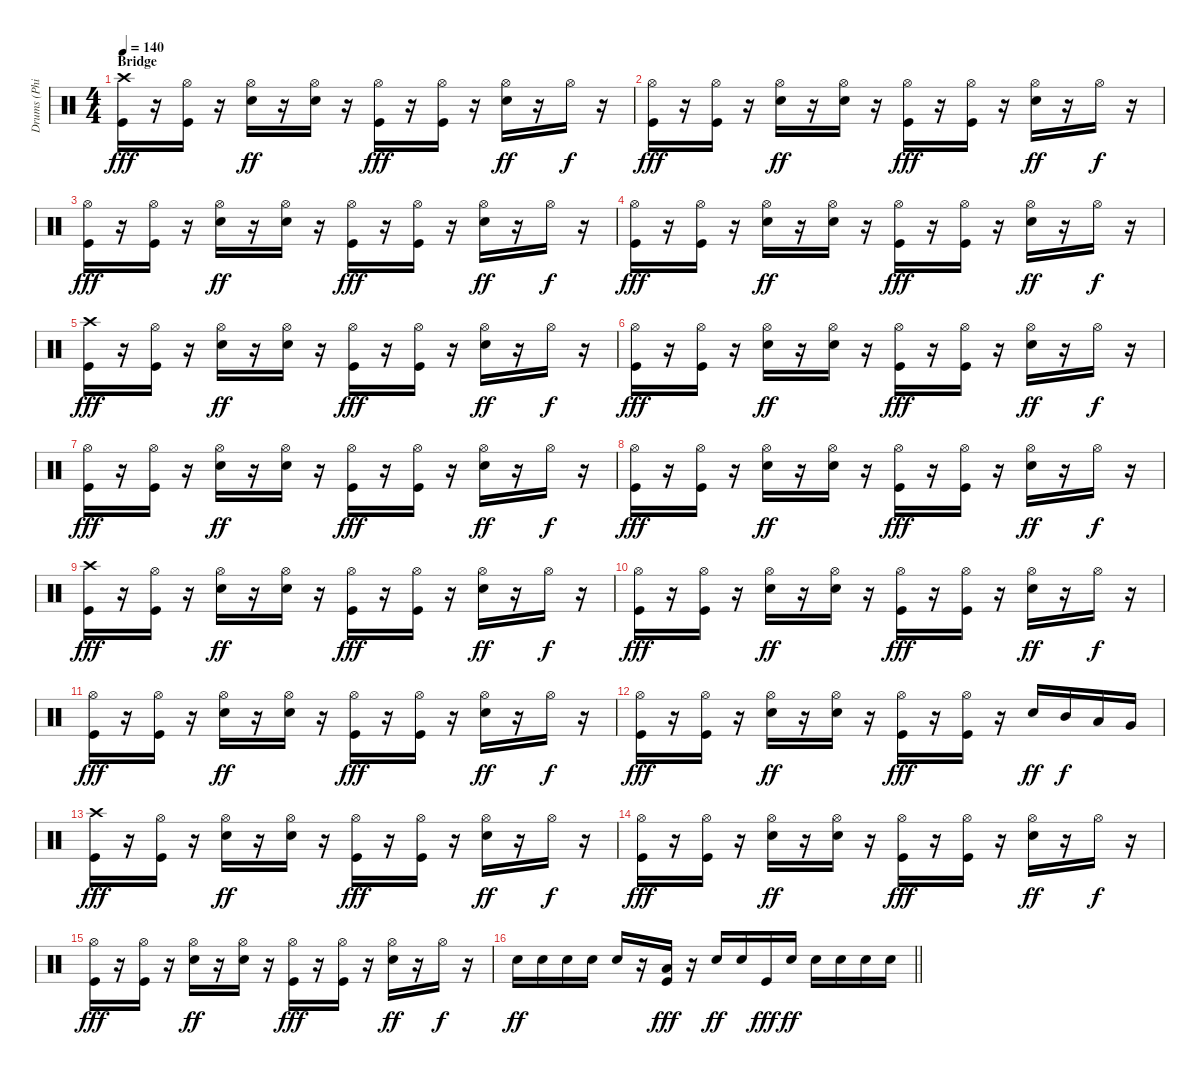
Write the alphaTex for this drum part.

\track ("Drums (Phillip Selway)" "Drums (Phi") {instrument percussion}
\staff {score}
\articulation defaults
\ts (4 4)
\section ("" "Bridge")
\tempo 140
\clef neutral
\ks c
("Crash high (hit)" "Kick (hit)").16{dy fff} r.16 ("Hi-Hat (open)" "Kick (hit)").16 r.16 ("Hi-Hat (open)" "Electric Snare (hit)").16{dy ff} r.16 ("Hi-Hat (open)" "Electric Snare (hit)").16 r.16 ("Hi-Hat (open)" "Kick (hit)").16{dy fff} r.16 ("Hi-Hat (open)" "Kick (hit)").16 r.16 ("Hi-Hat (open)" "Electric Snare (hit)").16{dy ff} r.16 "Hi-Hat (open)".16{dy f} r.16 |
("Hi-Hat (open)" "Kick (hit)").16{dy fff} r.16 ("Hi-Hat (open)" "Kick (hit)").16 r.16 ("Hi-Hat (open)" "Electric Snare (hit)").16{dy ff} r.16 ("Hi-Hat (open)" "Electric Snare (hit)").16 r.16 ("Hi-Hat (open)" "Kick (hit)").16{dy fff} r.16 ("Hi-Hat (open)" "Kick (hit)").16 r.16 ("Hi-Hat (open)" "Electric Snare (hit)").16{dy ff} r.16 "Hi-Hat (open)".16{dy f} r.16 |
("Hi-Hat (open)" "Kick (hit)").16{dy fff} r.16 ("Hi-Hat (open)" "Kick (hit)").16 r.16 ("Hi-Hat (open)" "Electric Snare (hit)").16{dy ff} r.16 ("Hi-Hat (open)" "Electric Snare (hit)").16 r.16 ("Hi-Hat (open)" "Kick (hit)").16{dy fff} r.16 ("Hi-Hat (open)" "Kick (hit)").16 r.16 ("Hi-Hat (open)" "Electric Snare (hit)").16{dy ff} r.16 "Hi-Hat (open)".16{dy f} r.16 |
("Hi-Hat (open)" "Kick (hit)").16{dy fff} r.16 ("Hi-Hat (open)" "Kick (hit)").16 r.16 ("Hi-Hat (open)" "Electric Snare (hit)").16{dy ff} r.16 ("Hi-Hat (open)" "Electric Snare (hit)").16 r.16 ("Hi-Hat (open)" "Kick (hit)").16{dy fff} r.16 ("Hi-Hat (open)" "Kick (hit)").16 r.16 ("Hi-Hat (open)" "Electric Snare (hit)").16{dy ff} r.16 "Hi-Hat (open)".16{dy f} r.16 |
("Crash high (hit)" "Kick (hit)").16{dy fff} r.16 ("Hi-Hat (open)" "Kick (hit)").16 r.16 ("Hi-Hat (open)" "Electric Snare (hit)").16{dy ff} r.16 ("Hi-Hat (open)" "Electric Snare (hit)").16 r.16 ("Hi-Hat (open)" "Kick (hit)").16{dy fff} r.16 ("Hi-Hat (open)" "Kick (hit)").16 r.16 ("Hi-Hat (open)" "Electric Snare (hit)").16{dy ff} r.16 "Hi-Hat (open)".16{dy f} r.16 |
("Hi-Hat (open)" "Kick (hit)").16{dy fff} r.16 ("Hi-Hat (open)" "Kick (hit)").16 r.16 ("Hi-Hat (open)" "Electric Snare (hit)").16{dy ff} r.16 ("Hi-Hat (open)" "Electric Snare (hit)").16 r.16 ("Hi-Hat (open)" "Kick (hit)").16{dy fff} r.16 ("Hi-Hat (open)" "Kick (hit)").16 r.16 ("Hi-Hat (open)" "Electric Snare (hit)").16{dy ff} r.16 "Hi-Hat (open)".16{dy f} r.16 |
("Hi-Hat (open)" "Kick (hit)").16{dy fff} r.16 ("Hi-Hat (open)" "Kick (hit)").16 r.16 ("Hi-Hat (open)" "Electric Snare (hit)").16{dy ff} r.16 ("Hi-Hat (open)" "Electric Snare (hit)").16 r.16 ("Hi-Hat (open)" "Kick (hit)").16{dy fff} r.16 ("Hi-Hat (open)" "Kick (hit)").16 r.16 ("Hi-Hat (open)" "Electric Snare (hit)").16{dy ff} r.16 "Hi-Hat (open)".16{dy f} r.16 |
("Hi-Hat (open)" "Kick (hit)").16{dy fff} r.16 ("Hi-Hat (open)" "Kick (hit)").16 r.16 ("Hi-Hat (open)" "Electric Snare (hit)").16{dy ff} r.16 ("Hi-Hat (open)" "Electric Snare (hit)").16 r.16 ("Hi-Hat (open)" "Kick (hit)").16{dy fff} r.16 ("Hi-Hat (open)" "Kick (hit)").16 r.16 ("Hi-Hat (open)" "Electric Snare (hit)").16{dy ff} r.16 "Hi-Hat (open)".16{dy f} r.16 |
("Crash high (hit)" "Kick (hit)").16{dy fff} r.16 ("Hi-Hat (open)" "Kick (hit)").16 r.16 ("Hi-Hat (open)" "Electric Snare (hit)").16{dy ff} r.16 ("Hi-Hat (open)" "Electric Snare (hit)").16 r.16 ("Hi-Hat (open)" "Kick (hit)").16{dy fff} r.16 ("Hi-Hat (open)" "Kick (hit)").16 r.16 ("Hi-Hat (open)" "Electric Snare (hit)").16{dy ff} r.16 "Hi-Hat (open)".16{dy f} r.16 |
("Hi-Hat (open)" "Kick (hit)").16{dy fff} r.16 ("Hi-Hat (open)" "Kick (hit)").16 r.16 ("Hi-Hat (open)" "Electric Snare (hit)").16{dy ff} r.16 ("Hi-Hat (open)" "Electric Snare (hit)").16 r.16 ("Hi-Hat (open)" "Kick (hit)").16{dy fff} r.16 ("Hi-Hat (open)" "Kick (hit)").16 r.16 ("Hi-Hat (open)" "Electric Snare (hit)").16{dy ff} r.16 "Hi-Hat (open)".16{dy f} r.16 |
("Hi-Hat (open)" "Kick (hit)").16{dy fff} r.16 ("Hi-Hat (open)" "Kick (hit)").16 r.16 ("Hi-Hat (open)" "Electric Snare (hit)").16{dy ff} r.16 ("Hi-Hat (open)" "Electric Snare (hit)").16 r.16 ("Hi-Hat (open)" "Kick (hit)").16{dy fff} r.16 ("Hi-Hat (open)" "Kick (hit)").16 r.16 ("Hi-Hat (open)" "Electric Snare (hit)").16{dy ff} r.16 "Hi-Hat (open)".16{dy f} r.16 |
("Hi-Hat (open)" "Kick (hit)").16{dy fff} r.16 ("Hi-Hat (open)" "Kick (hit)").16 r.16 ("Hi-Hat (open)" "Electric Snare (hit)").16{dy ff} r.16 ("Hi-Hat (open)" "Electric Snare (hit)").16 r.16 ("Hi-Hat (open)" "Kick (hit)").16{dy fff} r.16 ("Hi-Hat (open)" "Kick (hit)").16 r.16 "Electric Snare (hit)".16{dy ff} "Mid Tom (hit)".16{dy f} "Low Tom (hit)".16 "Very Low Tom (hit)".16 |
("Crash high (hit)" "Kick (hit)").16{dy fff} r.16 ("Hi-Hat (open)" "Kick (hit)").16 r.16 ("Hi-Hat (open)" "Electric Snare (hit)").16{dy ff} r.16 ("Hi-Hat (open)" "Electric Snare (hit)").16 r.16 ("Hi-Hat (open)" "Kick (hit)").16{dy fff} r.16 ("Hi-Hat (open)" "Kick (hit)").16 r.16 ("Hi-Hat (open)" "Electric Snare (hit)").16{dy ff} r.16 "Hi-Hat (open)".16{dy f} r.16 |
("Hi-Hat (open)" "Kick (hit)").16{dy fff} r.16 ("Hi-Hat (open)" "Kick (hit)").16 r.16 ("Hi-Hat (open)" "Electric Snare (hit)").16{dy ff} r.16 ("Hi-Hat (open)" "Electric Snare (hit)").16 r.16 ("Hi-Hat (open)" "Kick (hit)").16{dy fff} r.16 ("Hi-Hat (open)" "Kick (hit)").16 r.16 ("Hi-Hat (open)" "Electric Snare (hit)").16{dy ff} r.16 "Hi-Hat (open)".16{dy f} r.16 |
("Hi-Hat (open)" "Kick (hit)").16{dy fff} r.16 ("Hi-Hat (open)" "Kick (hit)").16 r.16 ("Hi-Hat (open)" "Electric Snare (hit)").16{dy ff} r.16 ("Hi-Hat (open)" "Electric Snare (hit)").16 r.16 ("Hi-Hat (open)" "Kick (hit)").16{dy fff} r.16 ("Hi-Hat (open)" "Kick (hit)").16 r.16 ("Hi-Hat (open)" "Electric Snare (hit)").16{dy ff} r.16 "Hi-Hat (open)".16{dy f} r.16 |
\barLineRight lightlight "Electric Snare (hit)".16{dy ff} "Electric Snare (hit)".16 "Electric Snare (hit)".16 "Electric Snare (hit)".16 "Electric Snare (hit)".16
r.16 ("Low Floor Tom (hit)" "Kick (hit)").16{dy fff} r.16 "Electric Snare (hit)".16{dy ff} "Electric Snare (hit)".16 "Kick (hit)".16{dy fff} "Electric Snare (hit)".16{dy ff} "Electric Snare (hit)".16 "Electric Snare (hit)".16 "Electric Snare (hit)".16 "Electric Snare (hit)".16
